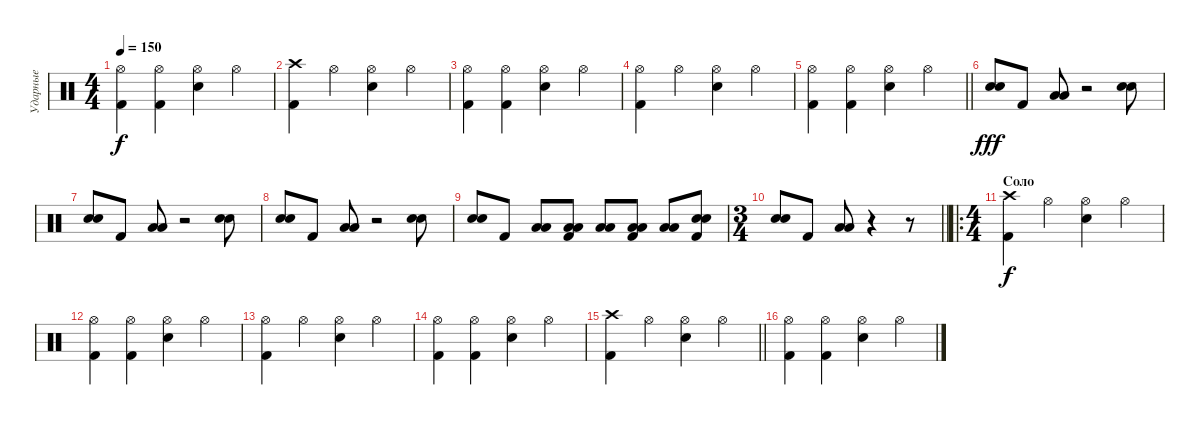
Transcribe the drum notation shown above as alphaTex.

\track ("Ударные" "Ударные") {instrument percussion}
\staff {score}
\articulation defaults
\ts (4 4)
\tempo 150
\clef neutral
\ks c
("Kick (hit) 2" "Hi-Hat (open)").4{dy f} ("Kick (hit) 2" "Hi-Hat (open)").4 ("Electric Snare (hit)" "Hi-Hat (open)").4 "Hi-Hat (open)".4 |
("Kick (hit) 2" "Crash high (hit)").4 "Hi-Hat (open)".4 ("Electric Snare (hit)" "Hi-Hat (open)").4 "Hi-Hat (open)".4 |
("Kick (hit) 2" "Hi-Hat (open)").4 ("Kick (hit) 2" "Hi-Hat (open)").4 ("Electric Snare (hit)" "Hi-Hat (open)").4 "Hi-Hat (open)".4 |
("Kick (hit) 2" "Hi-Hat (open)").4 "Hi-Hat (open)".4 ("Electric Snare (hit)" "Hi-Hat (open)").4 "Hi-Hat (open)".4 |
\barLineRight lightlight
("Kick (hit) 2" "Hi-Hat (open)").4 ("Kick (hit) 2" "Hi-Hat (open)").4 ("Electric Snare (hit)" "Hi-Hat (open)").4 "Hi-Hat (open)".4 |
("Electric Snare (hit)" "Electric Snare (hit)").8{dy fff} "Kick (hit) 2".8 ("Low Tom (hit)" "Low Floor Tom (hit)").8 r.2 ("Electric Snare (hit)" "Electric Snare (hit)").8 |
("Electric Snare (hit)" "Electric Snare (hit)").8 "Kick (hit) 2".8 ("Low Tom (hit)" "Low Floor Tom (hit)").8 r.2 ("Electric Snare (hit)" "Electric Snare (hit)").8 |
("Electric Snare (hit)" "Electric Snare (hit)").8 "Kick (hit) 2".8 ("Low Tom (hit)" "Low Floor Tom (hit)").8 r.2 ("Electric Snare (hit)" "Electric Snare (hit)").8 |
("Electric Snare (hit)" "Electric Snare (hit)").8 "Kick (hit) 2".8 ("Low Tom (hit)" "Low Floor Tom (hit)").8 ("Low Tom (hit)" "Low Floor Tom (hit)" "Kick (hit) 2").8 ("Low Tom (hit)" "Low Floor Tom (hit)").8 ("Low Tom (hit)" "Low Floor Tom (hit)" "Kick (hit) 2").8 ("Low Tom (hit)" "Low Floor Tom (hit)").8 ("Electric Snare (hit)" "Electric Snare (hit)" "Kick (hit) 2").8 |
\ts (3 4)
\barLineRight lightlight
("Electric Snare (hit)" "Electric Snare (hit)").8 "Kick (hit) 2".8 ("Low Tom (hit)" "Low Floor Tom (hit)").8 r.4 r.8 |
\ro
\ts (4 4)
\section ("" "Соло")
("Kick (hit) 2" "Crash high (hit)").4{dy f} "Hi-Hat (open)".4 ("Electric Snare (hit)" "Hi-Hat (open)").4 "Hi-Hat (open)".4 |
("Kick (hit) 2" "Hi-Hat (open)").4 ("Kick (hit) 2" "Hi-Hat (open)").4 ("Electric Snare (hit)" "Hi-Hat (open)").4 "Hi-Hat (open)".4 |
("Kick (hit) 2" "Hi-Hat (open)").4 "Hi-Hat (open)".4 ("Electric Snare (hit)" "Hi-Hat (open)").4 "Hi-Hat (open)".4 |
("Kick (hit) 2" "Hi-Hat (open)").4 ("Kick (hit) 2" "Hi-Hat (open)").4 ("Electric Snare (hit)" "Hi-Hat (open)").4 "Hi-Hat (open)".4 |
\barLineRight lightlight
("Kick (hit) 2" "Crash high (hit)").4 "Hi-Hat (open)".4 ("Electric Snare (hit)" "Hi-Hat (open)").4 "Hi-Hat (open)".4 |
("Kick (hit) 2" "Hi-Hat (open)").4 ("Kick (hit) 2" "Hi-Hat (open)").4 ("Electric Snare (hit)" "Hi-Hat (open)").4 "Hi-Hat (open)".4
